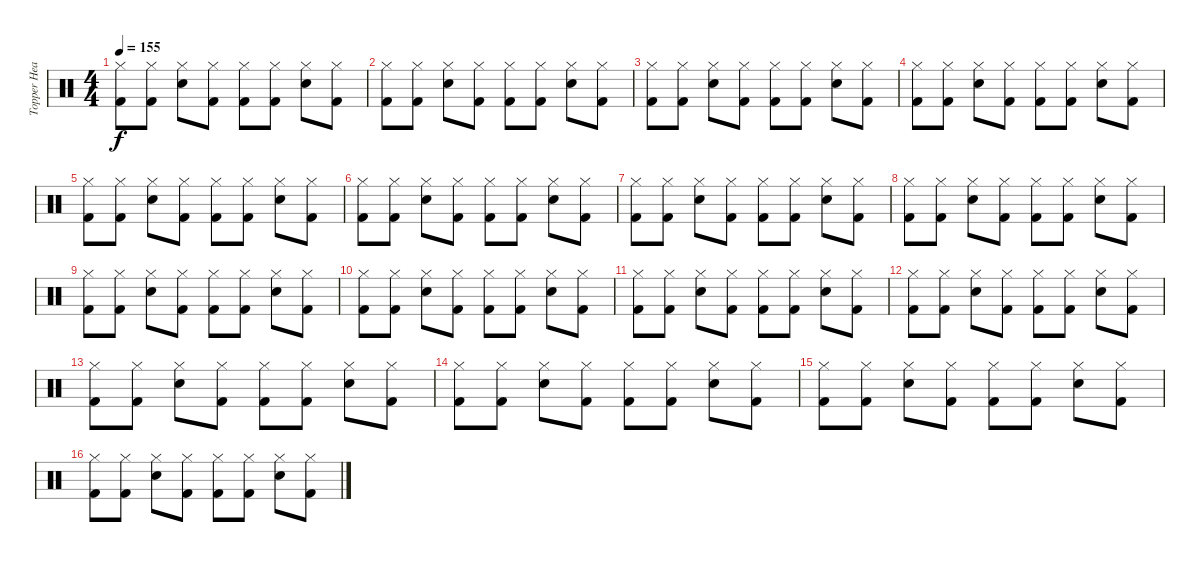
\track ("Topper Headon - Drums" "Topper Hea") {instrument percussion}
\staff {score}
\articulation defaults
\ts (4 4)
\tempo 155
\clef neutral
\ks c
("Kick (hit) 2" "Hi-Hat (closed)").8{dy f} ("Kick (hit) 2" "Hi-Hat (closed)").8 ("Snare (hit) 2" "Hi-Hat (closed)").8 ("Kick (hit) 2" "Hi-Hat (closed)").8 ("Kick (hit) 2" "Hi-Hat (closed)").8 ("Kick (hit) 2" "Hi-Hat (closed)").8 ("Snare (hit) 2" "Hi-Hat (closed)").8 ("Kick (hit) 2" "Hi-Hat (closed)").8 |
("Kick (hit) 2" "Hi-Hat (closed)").8 ("Kick (hit) 2" "Hi-Hat (closed)").8 ("Snare (hit) 2" "Hi-Hat (closed)").8 ("Kick (hit) 2" "Hi-Hat (closed)").8 ("Kick (hit) 2" "Hi-Hat (closed)").8 ("Kick (hit) 2" "Hi-Hat (closed)").8 ("Snare (hit) 2" "Hi-Hat (closed)").8 ("Kick (hit) 2" "Hi-Hat (closed)").8 |
("Kick (hit) 2" "Hi-Hat (closed)").8 ("Kick (hit) 2" "Hi-Hat (closed)").8 ("Snare (hit) 2" "Hi-Hat (closed)").8 ("Kick (hit) 2" "Hi-Hat (closed)").8 ("Kick (hit) 2" "Hi-Hat (closed)").8 ("Kick (hit) 2" "Hi-Hat (closed)").8 ("Snare (hit) 2" "Hi-Hat (closed)").8 ("Kick (hit) 2" "Hi-Hat (closed)").8 |
("Kick (hit) 2" "Hi-Hat (closed)").8 ("Kick (hit) 2" "Hi-Hat (closed)").8 ("Snare (hit) 2" "Hi-Hat (closed)").8 ("Kick (hit) 2" "Hi-Hat (closed)").8 ("Kick (hit) 2" "Hi-Hat (closed)").8 ("Kick (hit) 2" "Hi-Hat (closed)").8 ("Snare (hit) 2" "Hi-Hat (closed)").8 ("Kick (hit) 2" "Hi-Hat (closed)").8 |
("Kick (hit) 2" "Hi-Hat (closed)").8 ("Kick (hit) 2" "Hi-Hat (closed)").8 ("Snare (hit) 2" "Hi-Hat (closed)").8 ("Kick (hit) 2" "Hi-Hat (closed)").8 ("Kick (hit) 2" "Hi-Hat (closed)").8 ("Kick (hit) 2" "Hi-Hat (closed)").8 ("Snare (hit) 2" "Hi-Hat (closed)").8 ("Kick (hit) 2" "Hi-Hat (closed)").8 |
("Kick (hit) 2" "Hi-Hat (closed)").8 ("Kick (hit) 2" "Hi-Hat (closed)").8 ("Snare (hit) 2" "Hi-Hat (closed)").8 ("Kick (hit) 2" "Hi-Hat (closed)").8 ("Kick (hit) 2" "Hi-Hat (closed)").8 ("Kick (hit) 2" "Hi-Hat (closed)").8 ("Snare (hit) 2" "Hi-Hat (closed)").8 ("Kick (hit) 2" "Hi-Hat (closed)").8 |
("Kick (hit) 2" "Hi-Hat (closed)").8 ("Kick (hit) 2" "Hi-Hat (closed)").8 ("Snare (hit) 2" "Hi-Hat (closed)").8 ("Kick (hit) 2" "Hi-Hat (closed)").8 ("Kick (hit) 2" "Hi-Hat (closed)").8 ("Kick (hit) 2" "Hi-Hat (closed)").8 ("Snare (hit) 2" "Hi-Hat (closed)").8 ("Kick (hit) 2" "Hi-Hat (closed)").8 |
("Kick (hit) 2" "Hi-Hat (closed)").8 ("Kick (hit) 2" "Hi-Hat (closed)").8 ("Snare (hit) 2" "Hi-Hat (closed)").8 ("Kick (hit) 2" "Hi-Hat (closed)").8 ("Kick (hit) 2" "Hi-Hat (closed)").8 ("Kick (hit) 2" "Hi-Hat (closed)").8 ("Snare (hit) 2" "Hi-Hat (closed)").8 ("Kick (hit) 2" "Hi-Hat (closed)").8 |
("Kick (hit) 2" "Hi-Hat (closed)").8 ("Kick (hit) 2" "Hi-Hat (closed)").8 ("Snare (hit) 2" "Hi-Hat (closed)").8 ("Kick (hit) 2" "Hi-Hat (closed)").8 ("Kick (hit) 2" "Hi-Hat (closed)").8 ("Kick (hit) 2" "Hi-Hat (closed)").8 ("Snare (hit) 2" "Hi-Hat (closed)").8 ("Kick (hit) 2" "Hi-Hat (closed)").8 |
("Kick (hit) 2" "Hi-Hat (closed)").8 ("Kick (hit) 2" "Hi-Hat (closed)").8 ("Snare (hit) 2" "Hi-Hat (closed)").8 ("Kick (hit) 2" "Hi-Hat (closed)").8 ("Kick (hit) 2" "Hi-Hat (closed)").8 ("Kick (hit) 2" "Hi-Hat (closed)").8 ("Snare (hit) 2" "Hi-Hat (closed)").8 ("Kick (hit) 2" "Hi-Hat (closed)").8 |
("Kick (hit) 2" "Hi-Hat (closed)").8 ("Kick (hit) 2" "Hi-Hat (closed)").8 ("Snare (hit) 2" "Hi-Hat (closed)").8 ("Kick (hit) 2" "Hi-Hat (closed)").8 ("Kick (hit) 2" "Hi-Hat (closed)").8 ("Kick (hit) 2" "Hi-Hat (closed)").8 ("Snare (hit) 2" "Hi-Hat (closed)").8 ("Kick (hit) 2" "Hi-Hat (closed)").8 |
("Kick (hit) 2" "Hi-Hat (closed)").8 ("Kick (hit) 2" "Hi-Hat (closed)").8 ("Snare (hit) 2" "Hi-Hat (closed)").8 ("Kick (hit) 2" "Hi-Hat (closed)").8 ("Kick (hit) 2" "Hi-Hat (closed)").8 ("Kick (hit) 2" "Hi-Hat (closed)").8 ("Snare (hit) 2" "Hi-Hat (closed)").8 ("Kick (hit) 2" "Hi-Hat (closed)").8 |
("Kick (hit) 2" "Hi-Hat (closed)").8 ("Kick (hit) 2" "Hi-Hat (closed)").8 ("Snare (hit) 2" "Hi-Hat (closed)").8 ("Kick (hit) 2" "Hi-Hat (closed)").8 ("Kick (hit) 2" "Hi-Hat (closed)").8 ("Kick (hit) 2" "Hi-Hat (closed)").8 ("Snare (hit) 2" "Hi-Hat (closed)").8 ("Kick (hit) 2" "Hi-Hat (closed)").8 |
("Kick (hit) 2" "Hi-Hat (closed)").8 ("Kick (hit) 2" "Hi-Hat (closed)").8 ("Snare (hit) 2" "Hi-Hat (closed)").8 ("Kick (hit) 2" "Hi-Hat (closed)").8 ("Kick (hit) 2" "Hi-Hat (closed)").8 ("Kick (hit) 2" "Hi-Hat (closed)").8 ("Snare (hit) 2" "Hi-Hat (closed)").8 ("Kick (hit) 2" "Hi-Hat (closed)").8 |
("Kick (hit) 2" "Hi-Hat (closed)").8 ("Kick (hit) 2" "Hi-Hat (closed)").8 ("Snare (hit) 2" "Hi-Hat (closed)").8 ("Kick (hit) 2" "Hi-Hat (closed)").8 ("Kick (hit) 2" "Hi-Hat (closed)").8 ("Kick (hit) 2" "Hi-Hat (closed)").8 ("Snare (hit) 2" "Hi-Hat (closed)").8 ("Kick (hit) 2" "Hi-Hat (closed)").8 |
("Kick (hit) 2" "Hi-Hat (closed)").8 ("Kick (hit) 2" "Hi-Hat (closed)").8 ("Snare (hit) 2" "Hi-Hat (closed)").8 ("Kick (hit) 2" "Hi-Hat (closed)").8 ("Kick (hit) 2" "Hi-Hat (closed)").8 ("Kick (hit) 2" "Hi-Hat (closed)").8 ("Snare (hit) 2" "Hi-Hat (closed)").8 ("Kick (hit) 2" "Hi-Hat (closed)").8
